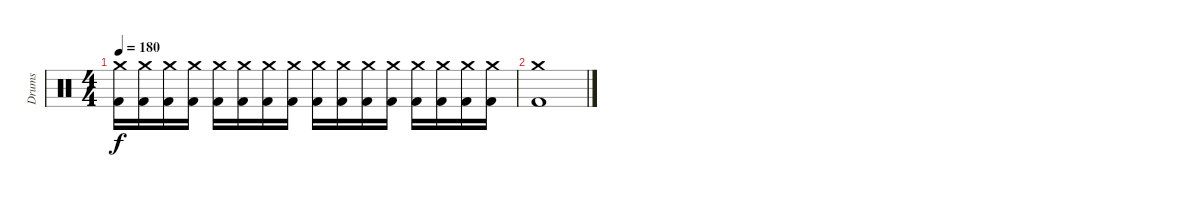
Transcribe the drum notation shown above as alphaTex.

\track ("Drums" "Drums") {instrument percussion}
\staff {score}
\articulation defaults
\ts (4 4)
\tempo 180
\clef neutral
\ks c
("Crash medium (hit)" "Kick (hit) 2").16{dy f} ("Crash medium (hit)" "Kick (hit) 2").16 ("Crash medium (hit)" "Kick (hit) 2").16 ("Crash medium (hit)" "Kick (hit) 2").16 ("Crash medium (hit)" "Kick (hit) 2").16 ("Crash medium (hit)" "Kick (hit) 2").16 ("Crash medium (hit)" "Kick (hit) 2").16 ("Crash medium (hit)" "Kick (hit) 2").16 ("Crash medium (hit)" "Kick (hit) 2").16 ("Crash medium (hit)" "Kick (hit) 2").16 ("Crash medium (hit)" "Kick (hit) 2").16 ("Crash medium (hit)" "Kick (hit) 2").16 ("Crash medium (hit)" "Kick (hit) 2").16 ("Crash medium (hit)" "Kick (hit) 2").16 ("Crash medium (hit)" "Kick (hit) 2").16 ("Crash medium (hit)" "Kick (hit) 2").16 |
("Crash medium (hit)" "Kick (hit) 2").1
